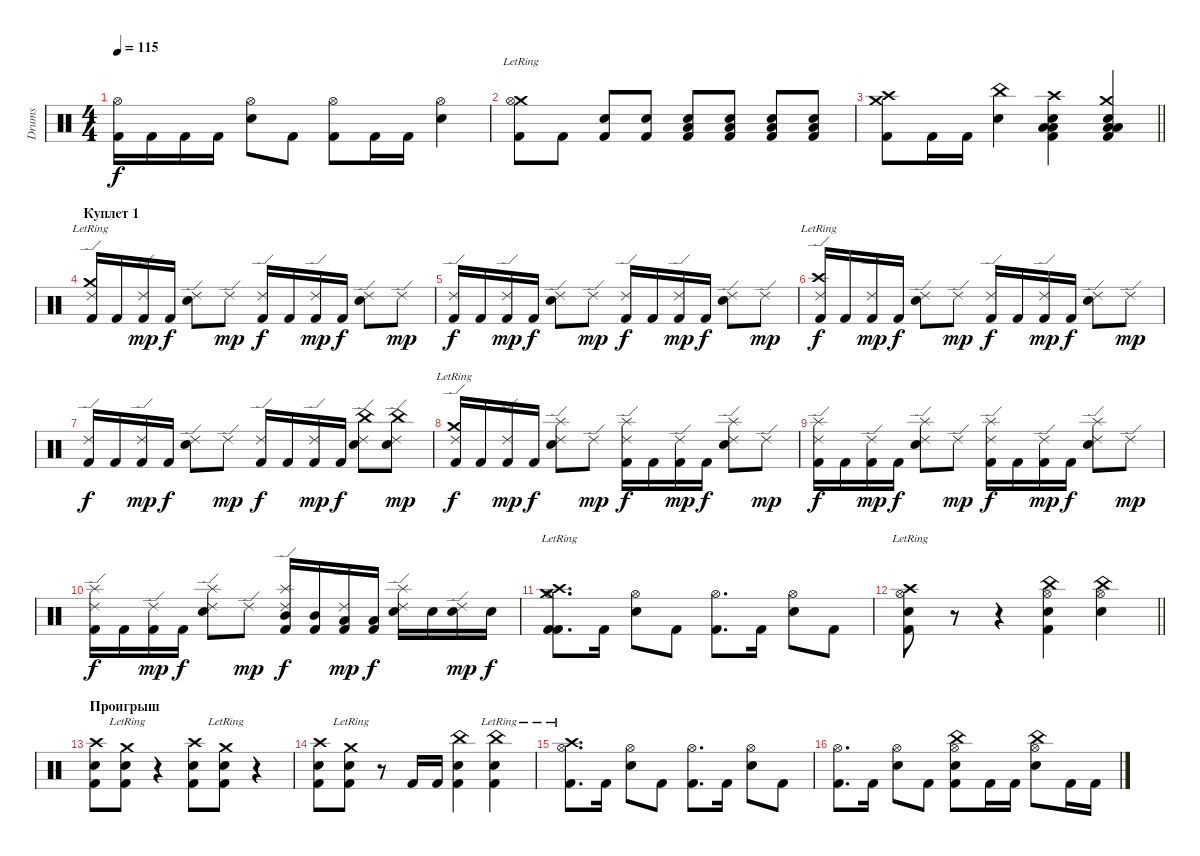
\track ("Drums" "Drums") {instrument percussion}
\staff {score}
\articulation defaults
\ts (4 4)
\tempo 115
\clef neutral
\ks c
("Kick (hit) 2" "Hi-Hat (open)").16{dy f} "Kick (hit) 2".16 "Kick (hit) 2".16 "Kick (hit) 2".16 ("Electric Snare (hit)" "Hi-Hat (open)").8 "Kick (hit) 2".8 ("Kick (hit) 2" "Hi-Hat (open)").8 "Kick (hit) 2".16 "Kick (hit) 2".16 ("Electric Snare (hit)" "Hi-Hat (open)").4 |
("Crash medium (hit)"{lr} "Hi-Hat (open)"{lr} "Kick (hit) 2").8 "Kick (hit) 2".8 ("Electric Snare (hit)" "Kick (hit) 2").8 ("Electric Snare (hit)" "Kick (hit) 2").8 ("Low Floor Tom (hit)" "Electric Snare (hit)" "Kick (hit) 2").8 ("Low Floor Tom (hit)" "Electric Snare (hit)" "Kick (hit) 2").8 ("Low Floor Tom (hit)" "Electric Snare (hit)" "Kick (hit) 2").8 ("Low Floor Tom (hit)" "Electric Snare (hit)" "Kick (hit) 2").8 |
\barLineRight lightlight
("Crash high (hit)" "Crash medium (hit)" "Kick (hit) 2").8 "Kick (hit) 2".16 "Kick (hit) 2".16 ("China (hit)" "Electric Snare (hit)").4 ("Crash high (hit)" "Low Floor Tom (hit)" "Electric Snare (hit)" "Low Floor Tom (hit)" "Kick (hit) 2").4 ("Crash medium (hit)" "Low Floor Tom (hit)" "Electric Snare (hit)" "Low Floor Tom (hit)" "Kick (hit) 2").4 |
\section ("" "Куплет 1")
("Crash medium (hit)"{lr} "Kick (hit) 2" "Ride (edge) 2").16 "Kick (hit) 2".16 ("Kick (hit) 2" "Ride (edge) 2").16{dy mp} "Kick (hit) 2".16{dy f} ("Electric Snare (hit)" "Ride (edge) 2").8 "Ride (edge) 2".8{dy mp} ("Kick (hit) 2" "Ride (edge) 2").16{dy f} "Kick (hit) 2".16 ("Kick (hit) 2" "Ride (edge) 2").16{dy mp} "Kick (hit) 2".16{dy f} ("Electric Snare (hit)" "Ride (edge) 2").8 "Ride (edge) 2".8{dy mp} |
("Kick (hit) 2" "Ride (edge) 2").16{dy f} "Kick (hit) 2".16 ("Kick (hit) 2" "Ride (edge) 2").16{dy mp} "Kick (hit) 2".16{dy f} ("Electric Snare (hit)" "Ride (edge) 2").8 "Ride (edge) 2".8{dy mp} ("Kick (hit) 2" "Ride (edge) 2").16{dy f} "Kick (hit) 2".16 ("Kick (hit) 2" "Ride (edge) 2").16{dy mp} "Kick (hit) 2".16{dy f} ("Electric Snare (hit)" "Ride (edge) 2").8 "Ride (edge) 2".8{dy mp} |
("Crash high (hit)"{lr} "Kick (hit) 2" "Ride (edge) 2").16{dy f} "Kick (hit) 2".16 ("Kick (hit) 2" "Ride (edge) 2").16{dy mp} "Kick (hit) 2".16{dy f} ("Electric Snare (hit)" "Ride (edge) 2").8 "Ride (edge) 2".8{dy mp} ("Kick (hit) 2" "Ride (edge) 2").16{dy f} "Kick (hit) 2".16 ("Kick (hit) 2" "Ride (edge) 2").16{dy mp} "Kick (hit) 2".16{dy f} ("Electric Snare (hit)" "Ride (edge) 2").8 "Ride (edge) 2".8{dy mp} |
("Kick (hit) 2" "Ride (edge) 2").16{dy f} "Kick (hit) 2".16 ("Kick (hit) 2" "Ride (edge) 2").16{dy mp} "Kick (hit) 2".16{dy f} ("Electric Snare (hit)" "Ride (edge) 2").8 "Ride (edge) 2".8{dy mp} ("Kick (hit) 2" "Ride (edge) 2").16{dy f} "Kick (hit) 2".16 ("Kick (hit) 2" "Ride (edge) 2").16{dy mp} "Kick (hit) 2".16{dy f} ("China (hit)" "Electric Snare (hit)" "Ride (edge) 2").8 ("China (hit)" "Electric Snare (hit)" "Ride (edge) 2").8{dy mp} |
("Crash medium (hit)"{lr} "Kick (hit) 2" "Ride (edge) 2").16{dy f} "Kick (hit) 2".16 ("Kick (hit) 2" "Ride (edge) 2").16{dy mp} "Kick (hit) 2".16{dy f} ("Splash (hit)" "Electric Snare (hit)" "Ride (edge) 2").8 "Ride (edge) 2".8{dy mp} ("Splash (hit)" "Kick (hit) 2" "Ride (edge) 2").16{dy f} "Kick (hit) 2".16 ("Kick (hit) 2" "Ride (edge) 2").16{dy mp} "Kick (hit) 2".16{dy f} ("Splash (hit)" "Electric Snare (hit)" "Ride (edge) 2").8 "Ride (edge) 2".8{dy mp} |
("Splash (hit)" "Kick (hit) 2" "Ride (edge) 2").16{dy f} "Kick (hit) 2".16 ("Kick (hit) 2" "Ride (edge) 2").16{dy mp} "Kick (hit) 2".16{dy f} ("Splash (hit)" "Electric Snare (hit)" "Ride (edge) 2").8 "Ride (edge) 2".8{dy mp} ("Splash (hit)" "Kick (hit) 2" "Ride (edge) 2").16{dy f} "Kick (hit) 2".16 ("Kick (hit) 2" "Ride (edge) 2").16{dy mp} "Kick (hit) 2".16{dy f} ("Splash (hit)" "Electric Snare (hit)" "Ride (edge) 2").8 "Ride (edge) 2".8{dy mp} |
("Splash (hit)" "Kick (hit) 2" "Ride (edge) 2").16{dy f} "Kick (hit) 2".16 ("Kick (hit) 2" "Ride (edge) 2").16{dy mp} "Kick (hit) 2".16{dy f} ("Splash (hit)" "Electric Snare (hit)" "Ride (edge) 2").8 "Ride (edge) 2".8{dy mp} ("Splash (hit)" "Mid Tom (hit)" "Kick (hit) 2" "Ride (edge) 2").16{dy f} ("Mid Tom (hit)" "Kick (hit) 2").16 ("Low Tom (hit)" "Kick (hit) 2" "Ride (edge) 2").16{dy mp} ("Low Tom (hit)" "Kick (hit) 2").16{dy f} ("Splash (hit)" "Electric Snare (hit)" "Ride (edge) 2").16 "Electric Snare (hit)".16 ("Electric Snare (hit)" "Ride (edge) 2").16{dy mp} "Electric Snare (hit)".16{dy f} |
("Crash medium (hit)"{lr} "Crash high (hit)"{lr} "Kick (hit) 2" "Kick (hit) 2" "Hi-Hat (open)").8{d} "Kick (hit) 2".16 ("Electric Snare (hit)" "Hi-Hat (open)").8 "Kick (hit) 2".8 ("Kick (hit) 2" "Hi-Hat (open)").8{d} "Kick (hit) 2".16 ("Electric Snare (hit)" "Hi-Hat (open)").8 "Kick (hit) 2".8 |
\barLineRight lightlight
("Crash high (hit)"{lr} "Electric Snare (hit)" "Kick (hit) 2" "Hi-Hat (open)").8 r.8 r.4 ("China (hit)" "Electric Snare (hit)" "Kick (hit) 2" "Hi-Hat (open)").4 ("China (hit)" "Electric Snare (hit)" "Hi-Hat (open)").4 |
\section ("" "Проигрыш")
("Crash high (hit)" "Electric Snare (hit)" "Kick (hit) 2").8 ("Crash medium (hit)"{lr} "Electric Snare (hit)" "Kick (hit) 2").8 r.4 ("Crash high (hit)" "Electric Snare (hit)" "Kick (hit) 2").8 ("Crash medium (hit)"{lr} "Electric Snare (hit)" "Kick (hit) 2").8 r.4 |
("Crash high (hit)" "Electric Snare (hit)" "Kick (hit) 2").8 ("Crash medium (hit)"{lr} "Electric Snare (hit)" "Kick (hit) 2").8 r.8 "Kick (hit) 2".16 "Kick (hit) 2".16 ("China (hit)" "Electric Snare (hit)" "Kick (hit) 2").4 ("China (hit)"{lr} "Electric Snare (hit)" "Kick (hit) 2").4 |
("Crash high (hit)"{lr} "Kick (hit) 2" "Hi-Hat (open)").8{d} "Kick (hit) 2".16 ("Electric Snare (hit)" "Hi-Hat (open)").8 "Kick (hit) 2".8 ("Kick (hit) 2" "Hi-Hat (open)").8{d} "Kick (hit) 2".16 ("Electric Snare (hit)" "Hi-Hat (open)").8 "Kick (hit) 2".8 |
("Kick (hit) 2" "Hi-Hat (open)").8{d} "Kick (hit) 2".16 ("Electric Snare (hit)" "Hi-Hat (open)").8 "Kick (hit) 2".8 ("China (hit)" "Electric Snare (hit)" "Kick (hit) 2" "Hi-Hat (open)").8 "Kick (hit) 2".16 "Kick (hit) 2".16 ("China (hit)" "Electric Snare (hit)" "Hi-Hat (open)").8 "Kick (hit) 2".16 "Kick (hit) 2".16
